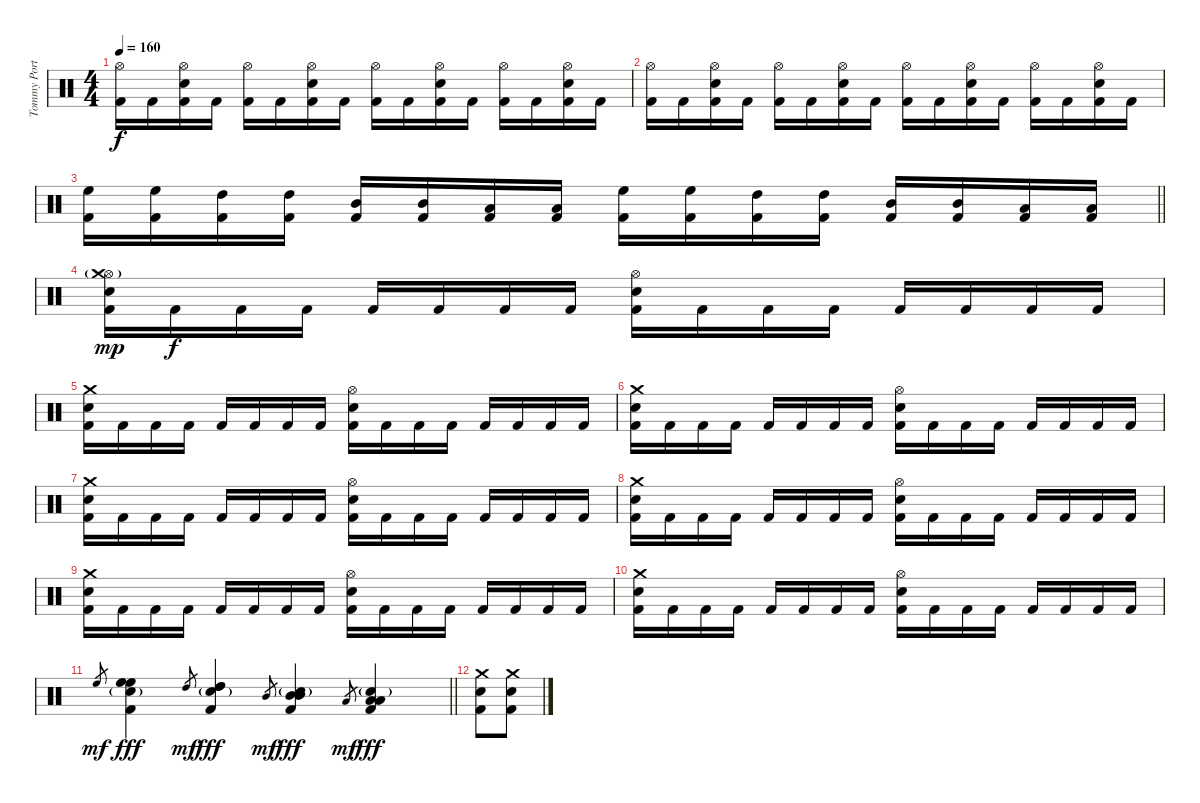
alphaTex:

\track ("Tommy Portino" "Tommy Port") {instrument percussion}
\staff {score}
\articulation defaults
\ts (4 4)
\tempo 160
\clef neutral
\ks c
("Hi-Hat (open)" "Kick (hit) 2").16{dy f} "Kick (hit) 2".16 ("Hi-Hat (open)" "Snare (hit) 2" "Kick (hit) 2").16 "Kick (hit) 2".16 ("Hi-Hat (open)" "Kick (hit) 2").16 "Kick (hit) 2".16 ("Hi-Hat (open)" "Snare (hit) 2" "Kick (hit) 2").16 "Kick (hit) 2".16 ("Hi-Hat (open)" "Kick (hit) 2").16 "Kick (hit) 2".16 ("Hi-Hat (open)" "Snare (hit) 2" "Kick (hit) 2").16 "Kick (hit) 2".16 ("Hi-Hat (open)" "Kick (hit) 2").16 "Kick (hit) 2".16 ("Hi-Hat (open)" "Snare (hit) 2" "Kick (hit) 2").16 "Kick (hit) 2".16 |
("Hi-Hat (open)" "Kick (hit) 2").16 "Kick (hit) 2".16 ("Hi-Hat (open)" "Snare (hit) 2" "Kick (hit) 2").16 "Kick (hit) 2".16 ("Hi-Hat (open)" "Kick (hit) 2").16 "Kick (hit) 2".16 ("Hi-Hat (open)" "Snare (hit) 2" "Kick (hit) 2").16 "Kick (hit) 2".16 ("Hi-Hat (open)" "Kick (hit) 2").16 "Kick (hit) 2".16 ("Hi-Hat (open)" "Snare (hit) 2" "Kick (hit) 2").16 "Kick (hit) 2".16 ("Hi-Hat (open)" "Kick (hit) 2").16 "Kick (hit) 2".16 ("Hi-Hat (open)" "Snare (hit) 2" "Kick (hit) 2").16 "Kick (hit) 2".16 |
\barLineRight lightlight
("High Floor Tom (hit)" "Kick (hit) 2").16 ("High Floor Tom (hit)" "Kick (hit) 2").16 ("High Tom (hit)" "Kick (hit) 2").16 ("High Tom (hit)" "Kick (hit) 2").16 ("Mid Tom (hit)" "Kick (hit) 2").16 ("Mid Tom (hit)" "Kick (hit) 2").16 ("Low Tom (hit)" "Kick (hit) 2").16 ("Low Tom (hit)" "Kick (hit) 2").16 ("High Floor Tom (hit)" "Kick (hit) 2").16 ("High Floor Tom (hit)" "Kick (hit) 2").16 ("High Tom (hit)" "Kick (hit) 2").16 ("High Tom (hit)" "Kick (hit) 2").16 ("Mid Tom (hit)" "Kick (hit) 2").16 ("Mid Tom (hit)" "Kick (hit) 2").16 ("Low Tom (hit)" "Kick (hit) 2").16 ("Low Tom (hit)" "Kick (hit) 2").16 |
("Hi-Hat (open)"{g} "Crash medium (hit)" "Snare (hit) 2" "Kick (hit) 2").16{dy mp} "Kick (hit) 2".16{dy f} "Kick (hit) 2".16 "Kick (hit) 2".16 "Kick (hit) 2".16 "Kick (hit) 2".16 "Kick (hit) 2".16 "Kick (hit) 2".16 ("Hi-Hat (open)" "Snare (hit) 2" "Kick (hit) 2").16 "Kick (hit) 2".16 "Kick (hit) 2".16 "Kick (hit) 2".16 "Kick (hit) 2".16 "Kick (hit) 2".16 "Kick (hit) 2".16 "Kick (hit) 2".16 |
("Crash medium (hit)" "Snare (hit) 2" "Kick (hit) 2").16 "Kick (hit) 2".16 "Kick (hit) 2".16 "Kick (hit) 2".16 "Kick (hit) 2".16 "Kick (hit) 2".16 "Kick (hit) 2".16 "Kick (hit) 2".16 ("Hi-Hat (open)" "Snare (hit) 2" "Kick (hit) 2").16 "Kick (hit) 2".16 "Kick (hit) 2".16 "Kick (hit) 2".16 "Kick (hit) 2".16 "Kick (hit) 2".16 "Kick (hit) 2".16 "Kick (hit) 2".16 |
("Crash medium (hit)" "Snare (hit) 2" "Kick (hit) 2").16 "Kick (hit) 2".16 "Kick (hit) 2".16 "Kick (hit) 2".16 "Kick (hit) 2".16 "Kick (hit) 2".16 "Kick (hit) 2".16 "Kick (hit) 2".16 ("Hi-Hat (open)" "Snare (hit) 2" "Kick (hit) 2").16 "Kick (hit) 2".16 "Kick (hit) 2".16 "Kick (hit) 2".16 "Kick (hit) 2".16 "Kick (hit) 2".16 "Kick (hit) 2".16 "Kick (hit) 2".16 |
("Crash medium (hit)" "Snare (hit) 2" "Kick (hit) 2").16 "Kick (hit) 2".16 "Kick (hit) 2".16 "Kick (hit) 2".16 "Kick (hit) 2".16 "Kick (hit) 2".16 "Kick (hit) 2".16 "Kick (hit) 2".16 ("Hi-Hat (open)" "Snare (hit) 2" "Kick (hit) 2").16 "Kick (hit) 2".16 "Kick (hit) 2".16 "Kick (hit) 2".16 "Kick (hit) 2".16 "Kick (hit) 2".16 "Kick (hit) 2".16 "Kick (hit) 2".16 |
("Crash medium (hit)" "Snare (hit) 2" "Kick (hit) 2").16 "Kick (hit) 2".16 "Kick (hit) 2".16 "Kick (hit) 2".16 "Kick (hit) 2".16 "Kick (hit) 2".16 "Kick (hit) 2".16 "Kick (hit) 2".16 ("Hi-Hat (open)" "Snare (hit) 2" "Kick (hit) 2").16 "Kick (hit) 2".16 "Kick (hit) 2".16 "Kick (hit) 2".16 "Kick (hit) 2".16 "Kick (hit) 2".16 "Kick (hit) 2".16 "Kick (hit) 2".16 |
("Crash medium (hit)" "Snare (hit) 2" "Kick (hit) 2").16 "Kick (hit) 2".16 "Kick (hit) 2".16 "Kick (hit) 2".16 "Kick (hit) 2".16 "Kick (hit) 2".16 "Kick (hit) 2".16 "Kick (hit) 2".16 ("Hi-Hat (open)" "Snare (hit) 2" "Kick (hit) 2").16 "Kick (hit) 2".16 "Kick (hit) 2".16 "Kick (hit) 2".16 "Kick (hit) 2".16 "Kick (hit) 2".16 "Kick (hit) 2".16 "Kick (hit) 2".16 |
("Crash medium (hit)" "Snare (hit) 2" "Kick (hit) 2").16 "Kick (hit) 2".16 "Kick (hit) 2".16 "Kick (hit) 2".16 "Kick (hit) 2".16 "Kick (hit) 2".16 "Kick (hit) 2".16 "Kick (hit) 2".16 ("Hi-Hat (open)" "Snare (hit) 2" "Kick (hit) 2").16 "Kick (hit) 2".16 "Kick (hit) 2".16 "Kick (hit) 2".16 "Kick (hit) 2".16 "Kick (hit) 2".16 "Kick (hit) 2".16 "Kick (hit) 2".16 |
\barLineRight lightlight "High Floor Tom (hit)".8{gr dy mf}
("Snare (hit) 2"{g} "High Floor Tom (hit)" "High Floor Tom (hit)" "Kick (hit) 2").4{dy fff} "High Tom (hit)".8{gr dy mf} ("Snare (hit) 2"{g} "High Tom (hit)" "High Tom (hit)" "Kick (hit) 2").4{dy fff} "Mid Tom (hit)".8{gr dy mf} ("Snare (hit) 2"{g} "Mid Tom (hit)" "Mid Tom (hit)" "Kick (hit) 2").4{dy fff} "Low Tom (hit)".8{gr dy mf} ("Snare (hit) 2"{g} "Low Tom (hit)" "Low Tom (hit)" "Kick (hit) 2").4{dy fff} |
("Crash medium (hit)" "Snare (hit) 2" "Kick (hit) 2").8 ("Crash medium (hit)" "Snare (hit) 2" "Kick (hit) 2").8
